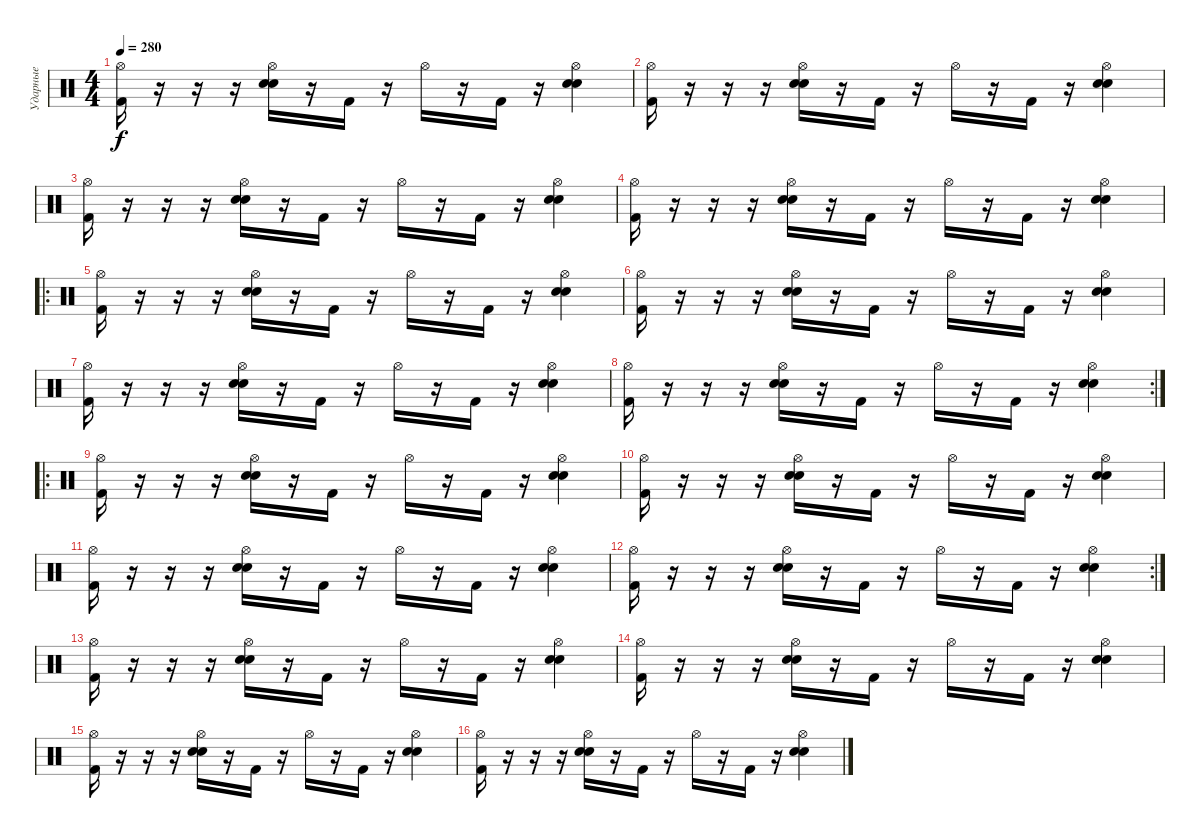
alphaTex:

\track ("Ударные" "Ударные") {instrument percussion}
\staff {score}
\articulation defaults
\ts (4 4)
\tempo 280
\clef neutral
\ks c
("Hi-Hat (open)" "Kick (hit) 2").16{dy f} r.16 r.16 r.16 ("Hi-Hat (open)" "Electric Snare (hit)" "Snare (hit) 2").16 r.16 "Kick (hit) 2".16 r.16 "Hi-Hat (open)".16 r.16 "Kick (hit) 2".16 r.16 ("Hi-Hat (open)" "Electric Snare (hit)" "Snare (hit) 2").4 |
("Hi-Hat (open)" "Kick (hit) 2").16 r.16 r.16 r.16 ("Hi-Hat (open)" "Electric Snare (hit)" "Snare (hit) 2").16 r.16 "Kick (hit) 2".16 r.16 "Hi-Hat (open)".16 r.16 "Kick (hit) 2".16 r.16 ("Hi-Hat (open)" "Electric Snare (hit)" "Snare (hit) 2").4 |
("Hi-Hat (open)" "Kick (hit) 2").16 r.16 r.16 r.16 ("Hi-Hat (open)" "Electric Snare (hit)" "Snare (hit) 2").16 r.16 "Kick (hit) 2".16 r.16 "Hi-Hat (open)".16 r.16 "Kick (hit) 2".16 r.16 ("Hi-Hat (open)" "Electric Snare (hit)" "Snare (hit) 2").4 |
("Hi-Hat (open)" "Kick (hit) 2").16 r.16 r.16 r.16 ("Hi-Hat (open)" "Electric Snare (hit)" "Snare (hit) 2").16 r.16 "Kick (hit) 2".16 r.16 "Hi-Hat (open)".16 r.16 "Kick (hit) 2".16 r.16 ("Hi-Hat (open)" "Electric Snare (hit)" "Snare (hit) 2").4 |
\ro
("Hi-Hat (open)" "Kick (hit) 2").16 r.16 r.16 r.16 ("Hi-Hat (open)" "Electric Snare (hit)" "Snare (hit) 2").16 r.16 "Kick (hit) 2".16 r.16 "Hi-Hat (open)".16 r.16 "Kick (hit) 2".16 r.16 ("Hi-Hat (open)" "Electric Snare (hit)" "Snare (hit) 2").4 |
("Hi-Hat (open)" "Kick (hit) 2").16 r.16 r.16 r.16 ("Hi-Hat (open)" "Electric Snare (hit)" "Snare (hit) 2").16 r.16 "Kick (hit) 2".16 r.16 "Hi-Hat (open)".16 r.16 "Kick (hit) 2".16 r.16 ("Hi-Hat (open)" "Electric Snare (hit)" "Snare (hit) 2").4 |
("Hi-Hat (open)" "Kick (hit) 2").16 r.16 r.16 r.16 ("Hi-Hat (open)" "Electric Snare (hit)" "Snare (hit) 2").16 r.16 "Kick (hit) 2".16 r.16 "Hi-Hat (open)".16 r.16 "Kick (hit) 2".16 r.16 ("Hi-Hat (open)" "Electric Snare (hit)" "Snare (hit) 2").4 |
\rc 2
("Hi-Hat (open)" "Kick (hit) 2").16 r.16 r.16 r.16 ("Hi-Hat (open)" "Electric Snare (hit)" "Snare (hit) 2").16 r.16 "Kick (hit) 2".16 r.16 "Hi-Hat (open)".16 r.16 "Kick (hit) 2".16 r.16 ("Hi-Hat (open)" "Electric Snare (hit)" "Snare (hit) 2").4 |
\ro
("Hi-Hat (open)" "Kick (hit) 2").16 r.16 r.16 r.16 ("Hi-Hat (open)" "Electric Snare (hit)" "Snare (hit) 2").16 r.16 "Kick (hit) 2".16 r.16 "Hi-Hat (open)".16 r.16 "Kick (hit) 2".16 r.16 ("Hi-Hat (open)" "Electric Snare (hit)" "Snare (hit) 2").4 |
("Hi-Hat (open)" "Kick (hit) 2").16 r.16 r.16 r.16 ("Hi-Hat (open)" "Electric Snare (hit)" "Snare (hit) 2").16 r.16 "Kick (hit) 2".16 r.16 "Hi-Hat (open)".16 r.16 "Kick (hit) 2".16 r.16 ("Hi-Hat (open)" "Electric Snare (hit)" "Snare (hit) 2").4 |
("Hi-Hat (open)" "Kick (hit) 2").16 r.16 r.16 r.16 ("Hi-Hat (open)" "Electric Snare (hit)" "Snare (hit) 2").16 r.16 "Kick (hit) 2".16 r.16 "Hi-Hat (open)".16 r.16 "Kick (hit) 2".16 r.16 ("Hi-Hat (open)" "Electric Snare (hit)" "Snare (hit) 2").4 |
\rc 2
("Hi-Hat (open)" "Kick (hit) 2").16 r.16 r.16 r.16 ("Hi-Hat (open)" "Electric Snare (hit)" "Snare (hit) 2").16 r.16 "Kick (hit) 2".16 r.16 "Hi-Hat (open)".16 r.16 "Kick (hit) 2".16 r.16 ("Hi-Hat (open)" "Electric Snare (hit)" "Snare (hit) 2").4 |
("Hi-Hat (open)" "Kick (hit) 2").16 r.16 r.16 r.16 ("Hi-Hat (open)" "Electric Snare (hit)" "Snare (hit) 2").16 r.16 "Kick (hit) 2".16 r.16 "Hi-Hat (open)".16 r.16 "Kick (hit) 2".16 r.16 ("Hi-Hat (open)" "Electric Snare (hit)" "Snare (hit) 2").4 |
("Hi-Hat (open)" "Kick (hit) 2").16 r.16 r.16 r.16 ("Hi-Hat (open)" "Electric Snare (hit)" "Snare (hit) 2").16 r.16 "Kick (hit) 2".16 r.16 "Hi-Hat (open)".16 r.16 "Kick (hit) 2".16 r.16 ("Hi-Hat (open)" "Electric Snare (hit)" "Snare (hit) 2").4 |
("Hi-Hat (open)" "Kick (hit) 2").16 r.16 r.16 r.16 ("Hi-Hat (open)" "Electric Snare (hit)" "Snare (hit) 2").16 r.16 "Kick (hit) 2".16 r.16 "Hi-Hat (open)".16 r.16 "Kick (hit) 2".16 r.16 ("Hi-Hat (open)" "Electric Snare (hit)" "Snare (hit) 2").4 |
("Hi-Hat (open)" "Kick (hit) 2").16 r.16 r.16 r.16 ("Hi-Hat (open)" "Electric Snare (hit)" "Snare (hit) 2").16 r.16 "Kick (hit) 2".16 r.16 "Hi-Hat (open)".16 r.16 "Kick (hit) 2".16 r.16 ("Hi-Hat (open)" "Electric Snare (hit)" "Snare (hit) 2").4
